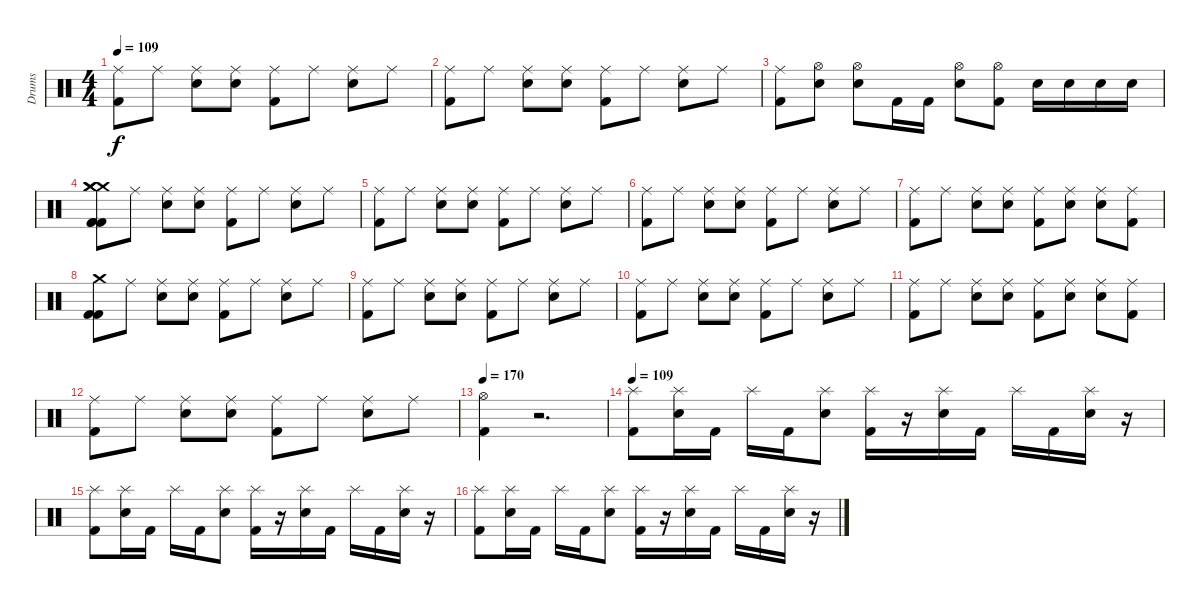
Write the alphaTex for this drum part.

\track ("Drums" "Drums") {instrument percussion}
\staff {score}
\articulation defaults
\ts (4 4)
\tempo 109
\clef neutral
\ks c
("Ride (middle)" "Kick (hit) 2").8{dy f} "Ride (middle)".8 ("Ride (middle)" "Electric Snare (hit)").8 ("Ride (middle)" "Electric Snare (hit)").8 ("Ride (middle)" "Kick (hit) 2").8 "Ride (middle)".8 ("Ride (middle)" "Electric Snare (hit)").8 "Ride (middle)".8 |
("Ride (middle)" "Kick (hit) 2").8 "Ride (middle)".8 ("Ride (middle)" "Electric Snare (hit)").8 ("Ride (middle)" "Electric Snare (hit)").8 ("Ride (middle)" "Kick (hit) 2").8 "Ride (middle)".8 ("Ride (middle)" "Electric Snare (hit)").8 "Ride (middle)".8 |
("Ride (middle)" "Kick (hit) 2").8 ("Hi-Hat (open)" "Electric Snare (hit)").8 ("Hi-Hat (open)" "Electric Snare (hit)").8 "Kick (hit) 2".16 "Kick (hit) 2".16 ("Hi-Hat (open)" "Electric Snare (hit)").8 ("Hi-Hat (open)" "Kick (hit) 2").8 "Electric Snare (hit)".16 "Electric Snare (hit)".16 "Electric Snare (hit)".16 "Electric Snare (hit)".16 |
("Crash medium (hit)" "Kick (hit) 2" "Crash medium (hit)" "Kick (hit) 2" "Kick (hit) 2" "Crash medium (hit)").8 "Ride (middle)".8 ("Ride (middle)" "Electric Snare (hit)").8 ("Ride (middle)" "Electric Snare (hit)").8 ("Ride (middle)" "Kick (hit) 2").8 "Ride (middle)".8 ("Ride (middle)" "Electric Snare (hit)").8 "Ride (middle)".8 |
("Ride (middle)" "Kick (hit) 2").8 "Ride (middle)".8 ("Ride (middle)" "Electric Snare (hit)").8 ("Ride (middle)" "Electric Snare (hit)").8 ("Ride (middle)" "Kick (hit) 2").8 "Ride (middle)".8 ("Ride (middle)" "Electric Snare (hit)").8 "Ride (middle)".8 |
("Ride (middle)" "Kick (hit) 2").8 "Ride (middle)".8 ("Ride (middle)" "Electric Snare (hit)").8 ("Ride (middle)" "Electric Snare (hit)").8 ("Ride (middle)" "Kick (hit) 2").8 "Ride (middle)".8 ("Electric Snare (hit)" "Ride (middle)").8 "Ride (middle)".8 |
("Ride (middle)" "Kick (hit) 2").8 "Ride (middle)".8 ("Electric Snare (hit)" "Ride (middle)").8 ("Electric Snare (hit)" "Ride (middle)").8 ("Kick (hit) 2" "Ride (middle)").8 ("Electric Snare (hit)" "Ride (middle)").8 ("Electric Snare (hit)" "Ride (middle)").8 ("Kick (hit) 2" "Ride (middle)").8 |
("Kick (hit) 2" "Crash medium (hit)" "Kick (hit) 2").8 "Ride (middle)".8 ("Ride (middle)" "Electric Snare (hit)").8 ("Ride (middle)" "Electric Snare (hit)").8 ("Ride (middle)" "Kick (hit) 2").8 "Ride (middle)".8 ("Ride (middle)" "Electric Snare (hit)").8 "Ride (middle)".8 |
("Ride (middle)" "Kick (hit) 2").8 "Ride (middle)".8 ("Ride (middle)" "Electric Snare (hit)").8 ("Ride (middle)" "Electric Snare (hit)").8 ("Ride (middle)" "Kick (hit) 2").8 "Ride (middle)".8 ("Ride (middle)" "Electric Snare (hit)").8 "Ride (middle)".8 |
("Ride (middle)" "Kick (hit) 2").8 "Ride (middle)".8 ("Ride (middle)" "Electric Snare (hit)").8 ("Ride (middle)" "Electric Snare (hit)").8 ("Ride (middle)" "Kick (hit) 2").8 "Ride (middle)".8 ("Electric Snare (hit)" "Ride (middle)").8 "Ride (middle)".8 |
("Ride (middle)" "Kick (hit) 2").8 "Ride (middle)".8 ("Electric Snare (hit)" "Ride (middle)").8 ("Electric Snare (hit)" "Ride (middle)").8 ("Kick (hit) 2" "Ride (middle)").8 ("Electric Snare (hit)" "Ride (middle)").8 ("Electric Snare (hit)" "Ride (middle)").8 ("Kick (hit) 2" "Ride (middle)").8 |
("Ride (middle)" "Kick (hit) 2").8 "Ride (middle)".8 ("Ride (middle)" "Electric Snare (hit)").8 ("Ride (middle)" "Electric Snare (hit)").8 ("Ride (middle)" "Kick (hit) 2").8 "Ride (middle)".8 ("Ride (middle)" "Electric Snare (hit)").8 "Ride (middle)".8 |
\tempo 170
("Hi-Hat (open)" "Kick (hit) 2").4 r.2{d} |
\tempo 109
("Splash (hit)" "Kick (hit) 2").8 ("Splash (hit)" "Electric Snare (hit)").16 "Kick (hit) 2".16 "Splash (hit)".16 "Kick (hit) 2".16 ("Splash (hit)" "Electric Snare (hit)").8 ("Splash (hit)" "Kick (hit) 2").16 r.16 ("Splash (hit)" "Electric Snare (hit)").16 "Kick (hit) 2".16 "Splash (hit)".16 "Kick (hit) 2".16 ("Splash (hit)" "Electric Snare (hit)").16 r.16 |
("Splash (hit)" "Kick (hit) 2").8 ("Splash (hit)" "Electric Snare (hit)").16 "Kick (hit) 2".16 "Splash (hit)".16 "Kick (hit) 2".16 ("Splash (hit)" "Electric Snare (hit)").8 ("Splash (hit)" "Kick (hit) 2").16 r.16 ("Splash (hit)" "Electric Snare (hit)").16 "Kick (hit) 2".16 "Splash (hit)".16 "Kick (hit) 2".16 ("Splash (hit)" "Electric Snare (hit)").16 r.16 |
("Splash (hit)" "Kick (hit) 2").8 ("Splash (hit)" "Electric Snare (hit)").16 "Kick (hit) 2".16 "Splash (hit)".16 "Kick (hit) 2".16 ("Splash (hit)" "Electric Snare (hit)").8 ("Splash (hit)" "Kick (hit) 2").16 r.16 ("Splash (hit)" "Electric Snare (hit)").16 "Kick (hit) 2".16 "Splash (hit)".16 "Kick (hit) 2".16 ("Splash (hit)" "Electric Snare (hit)").16 r.16
